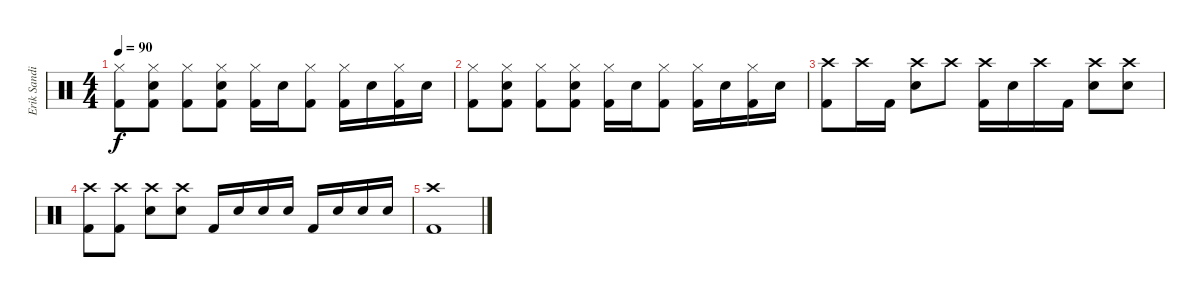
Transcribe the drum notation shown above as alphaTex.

\track ("Erik Sandin" "Erik Sandi") {instrument percussion}
\staff {score}
\articulation defaults
\ts (4 4)
\tempo 90
\clef neutral
\ks c
("Hi-Hat (closed)" "Kick (hit) 2").8{dy f} ("Hi-Hat (closed)" "Electric Snare (hit)" "Kick (hit) 2").8 ("Hi-Hat (closed)" "Kick (hit) 2").8 ("Hi-Hat (closed)" "Electric Snare (hit)" "Kick (hit) 2").8 ("Hi-Hat (closed)" "Kick (hit) 2").16 "Electric Snare (hit)".16 ("Hi-Hat (closed)" "Kick (hit) 2").8 ("Hi-Hat (closed)" "Kick (hit) 2").16 "Electric Snare (hit)".16 ("Hi-Hat (closed)" "Kick (hit) 2").16 "Electric Snare (hit)".16 |
("Hi-Hat (closed)" "Kick (hit) 2").8 ("Hi-Hat (closed)" "Electric Snare (hit)" "Kick (hit) 2").8 ("Hi-Hat (closed)" "Kick (hit) 2").8 ("Hi-Hat (closed)" "Electric Snare (hit)" "Kick (hit) 2").8 ("Hi-Hat (closed)" "Kick (hit) 2").16 "Electric Snare (hit)".16 ("Hi-Hat (closed)" "Kick (hit) 2").8 ("Hi-Hat (closed)" "Kick (hit) 2").16 "Electric Snare (hit)".16 ("Hi-Hat (closed)" "Kick (hit) 2").16 "Electric Snare (hit)".16 |
("Crash high (hit)" "Kick (hit) 2").8 "Crash high (hit)".16 "Kick (hit) 2".16 ("Crash high (hit)" "Electric Snare (hit)").8 "Crash high (hit)".8 ("Crash high (hit)" "Kick (hit) 2").16 "Electric Snare (hit)".16 "Crash high (hit)".16 "Kick (hit) 2".16 ("Crash high (hit)" "Electric Snare (hit)").8 ("Crash high (hit)" "Electric Snare (hit)").8 |
("Crash high (hit)" "Kick (hit) 2").8 ("Crash high (hit)" "Kick (hit) 2").8 ("Crash high (hit)" "Electric Snare (hit)").8 ("Crash high (hit)" "Electric Snare (hit)").8 "Kick (hit) 2".16 "Electric Snare (hit)".16 "Electric Snare (hit)".16 "Electric Snare (hit)".16 "Kick (hit) 2".16 "Electric Snare (hit)".16 "Electric Snare (hit)".16 "Electric Snare (hit)".16 |
("Crash high (hit)" "Kick (hit) 2").1
